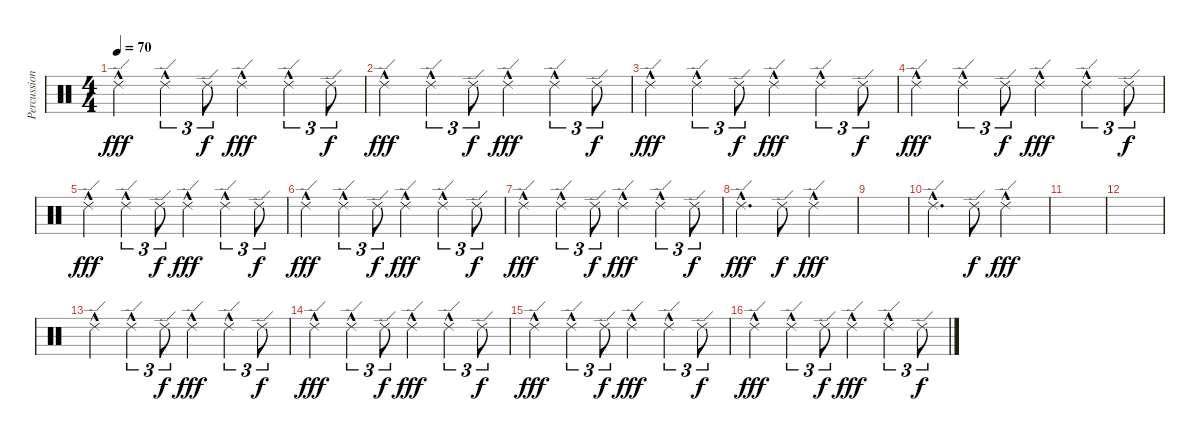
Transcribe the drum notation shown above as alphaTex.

\track ("Percussion" "Percussion") {instrument percussion}
\staff {score}
\articulation defaults
\ts (4 4)
\tempo 70
\clef neutral
\ks c "Ride (edge) 2"{hac}.4{dy fff} "Ride (edge) 2"{hac}.4{tu (3 2)} "Ride (edge) 2".8{tu (3 2) dy f} "Ride (edge) 2"{hac}.4{dy fff} "Ride (edge) 2"{hac}.4{tu (3 2)} "Ride (edge) 2".8{tu (3 2) dy f}
|
"Ride (edge) 2"{hac}.4{dy fff} "Ride (edge) 2"{hac}.4{tu (3 2)} "Ride (edge) 2".8{tu (3 2) dy f} "Ride (edge) 2"{hac}.4{dy fff} "Ride (edge) 2"{hac}.4{tu (3 2)} "Ride (edge) 2".8{tu (3 2) dy f} |
"Ride (edge) 2"{hac}.4{dy fff} "Ride (edge) 2"{hac}.4{tu (3 2)} "Ride (edge) 2".8{tu (3 2) dy f} "Ride (edge) 2"{hac}.4{dy fff} "Ride (edge) 2"{hac}.4{tu (3 2)} "Ride (edge) 2".8{tu (3 2) dy f} |
"Ride (edge) 2"{hac}.4{dy fff} "Ride (edge) 2"{hac}.4{tu (3 2)} "Ride (edge) 2".8{tu (3 2) dy f} "Ride (edge) 2"{hac}.4{dy fff} "Ride (edge) 2"{hac}.4{tu (3 2)} "Ride (edge) 2".8{tu (3 2) dy f} |
"Ride (edge) 2"{hac}.4{dy fff} "Ride (edge) 2"{hac}.4{tu (3 2)} "Ride (edge) 2".8{tu (3 2) dy f} "Ride (edge) 2"{hac}.4{dy fff} "Ride (edge) 2"{hac}.4{tu (3 2)} "Ride (edge) 2".8{tu (3 2) dy f} |
"Ride (edge) 2"{hac}.4{dy fff} "Ride (edge) 2"{hac}.4{tu (3 2)} "Ride (edge) 2".8{tu (3 2) dy f} "Ride (edge) 2"{hac}.4{dy fff} "Ride (edge) 2"{hac}.4{tu (3 2)} "Ride (edge) 2".8{tu (3 2) dy f} |
"Ride (edge) 2"{hac}.4{dy fff} "Ride (edge) 2"{hac}.4{tu (3 2)} "Ride (edge) 2".8{tu (3 2) dy f} "Ride (edge) 2"{hac}.4{dy fff} "Ride (edge) 2"{hac}.4{tu (3 2)} "Ride (edge) 2".8{tu (3 2) dy f} |
"Ride (edge) 2"{hac}.4{d dy fff} "Ride (edge) 2".8{dy f} "Ride (edge) 2"{hac}.2{dy fff} |
|
"Ride (edge) 2"{hac}.4{d} "Ride (edge) 2".8{dy f} "Ride (edge) 2"{hac}.2{dy fff} |
|
|
"Ride (edge) 2"{hac}.4 "Ride (edge) 2"{hac}.4{tu (3 2)} "Ride (edge) 2".8{tu (3 2) dy f} "Ride (edge) 2"{hac}.4{dy fff} "Ride (edge) 2"{hac}.4{tu (3 2)} "Ride (edge) 2".8{tu (3 2) dy f} |
"Ride (edge) 2"{hac}.4{dy fff} "Ride (edge) 2"{hac}.4{tu (3 2)} "Ride (edge) 2".8{tu (3 2) dy f} "Ride (edge) 2"{hac}.4{dy fff} "Ride (edge) 2"{hac}.4{tu (3 2)} "Ride (edge) 2".8{tu (3 2) dy f} |
"Ride (edge) 2"{hac}.4{dy fff} "Ride (edge) 2"{hac}.4{tu (3 2)} "Ride (edge) 2".8{tu (3 2) dy f} "Ride (edge) 2"{hac}.4{dy fff} "Ride (edge) 2"{hac}.4{tu (3 2)} "Ride (edge) 2".8{tu (3 2) dy f} |
"Ride (edge) 2"{hac}.4{dy fff} "Ride (edge) 2"{hac}.4{tu (3 2)} "Ride (edge) 2".8{tu (3 2) dy f} "Ride (edge) 2"{hac}.4{dy fff} "Ride (edge) 2"{hac}.4{tu (3 2)} "Ride (edge) 2".8{tu (3 2) dy f}
